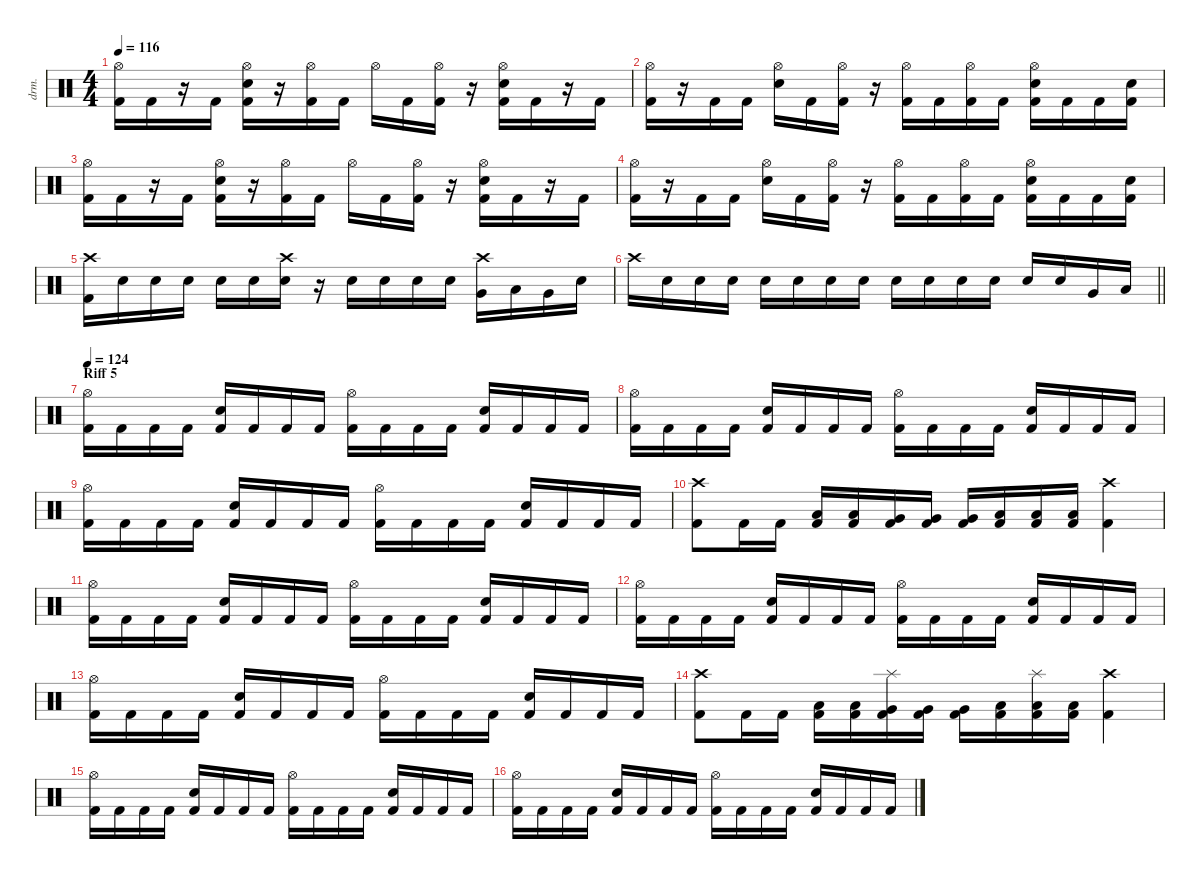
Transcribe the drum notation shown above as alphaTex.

\defaultSystemsLayout 4
\hideDynamics
\bracketExtendMode nobrackets
\otherSystemsTrackNameOrientation horizontal
\track ("Drums" "drm.") {instrument percussion}
\staff {score}
\articulation defaults
\ts (4 4)
\tempo 116
\clef neutral
\ks c
("Hi-Hat (open)" "Kick (hit) 2").16{dy f} "Kick (hit) 2".16 r.16 "Kick (hit) 2".16 ("Hi-Hat (open)" "Snare (hit) 2" "Kick (hit) 2").16 r.16 ("Hi-Hat (open)" "Kick (hit) 2").16 "Kick (hit) 2".16 "Hi-Hat (open)".16 "Kick (hit) 2".16 ("Hi-Hat (open)" "Kick (hit) 2").16 r.16 ("Hi-Hat (open)" "Snare (hit) 2" "Kick (hit) 2").16 "Kick (hit) 2".16 r.16 "Kick (hit) 2".16 |
("Hi-Hat (open)" "Kick (hit) 2").16 r.16 "Kick (hit) 2".16 "Kick (hit) 2".16 ("Hi-Hat (open)" "Snare (hit) 2").16 "Kick (hit) 2".16 ("Hi-Hat (open)" "Kick (hit) 2").16 r.16 ("Hi-Hat (open)" "Kick (hit) 2").16 "Kick (hit) 2".16 ("Hi-Hat (open)" "Kick (hit) 2").16 "Kick (hit) 2".16 ("Hi-Hat (open)" "Snare (hit) 2" "Kick (hit) 2").16 "Kick (hit) 2".16 "Kick (hit) 2".16 ("Snare (hit) 2" "Kick (hit) 2").16 |
("Hi-Hat (open)" "Kick (hit) 2").16 "Kick (hit) 2".16 r.16 "Kick (hit) 2".16 ("Hi-Hat (open)" "Snare (hit) 2" "Kick (hit) 2").16 r.16 ("Hi-Hat (open)" "Kick (hit) 2").16 "Kick (hit) 2".16 "Hi-Hat (open)".16 "Kick (hit) 2".16 ("Hi-Hat (open)" "Kick (hit) 2").16 r.16 ("Hi-Hat (open)" "Snare (hit) 2" "Kick (hit) 2").16 "Kick (hit) 2".16 r.16 "Kick (hit) 2".16 |
("Hi-Hat (open)" "Kick (hit) 2").16 r.16 "Kick (hit) 2".16 "Kick (hit) 2".16 ("Hi-Hat (open)" "Snare (hit) 2").16 "Kick (hit) 2".16 ("Hi-Hat (open)" "Kick (hit) 2").16 r.16 ("Hi-Hat (open)" "Kick (hit) 2").16 "Kick (hit) 2".16 ("Hi-Hat (open)" "Kick (hit) 2").16 "Kick (hit) 2".16 ("Hi-Hat (open)" "Snare (hit) 2" "Kick (hit) 2").16 "Kick (hit) 2".16 "Kick (hit) 2".16 ("Snare (hit) 2" "Kick (hit) 2").16 |
("Kick (hit) 2" "Crash high (hit)").16 "Snare (hit) 2".16 "Snare (hit) 2".16 "Snare (hit) 2".16 "Snare (hit) 2".16 "Snare (hit) 2".16 ("Crash high (hit)" "Snare (hit) 2").16 r.16 "Snare (hit) 2".16 "Snare (hit) 2".16 "Snare (hit) 2".16 "Snare (hit) 2".16 ("Crash high (hit)" "Very Low Tom (hit)").16 "Low Floor Tom (hit)".16 "Very Low Tom (hit)".16 "Snare (hit) 2".16 |
\barLineRight lightlight "Crash high (hit)".16 "Snare (hit) 2".16 "Snare (hit) 2".16 "Snare (hit) 2".16 "Snare (hit) 2".16 "Snare (hit) 2".16 "Snare (hit) 2".16 "Snare (hit) 2".16 "Snare (hit) 2".16 "Snare (hit) 2".16 "Snare (hit) 2".16 "Snare (hit) 2".16 "Snare (hit) 2".16 "Snare (hit) 2".16 "Very Low Tom (hit)".16 "Low Floor Tom (hit)".16
|
\section ("" "Riff 5")
\tempo 124
("Hi-Hat (open)" "Kick (hit) 2").16 "Kick (hit) 2".16 "Kick (hit) 2".16 "Kick (hit) 2".16 ("Snare (hit) 2" "Kick (hit) 2").16 "Kick (hit) 2".16 "Kick (hit) 2".16 "Kick (hit) 2".16 ("Hi-Hat (open)" "Kick (hit) 2").16 "Kick (hit) 2".16 "Kick (hit) 2".16 "Kick (hit) 2".16 ("Snare (hit) 2" "Kick (hit) 2").16 "Kick (hit) 2".16 "Kick (hit) 2".16 "Kick (hit) 2".16 |
("Hi-Hat (open)" "Kick (hit) 2").16 "Kick (hit) 2".16 "Kick (hit) 2".16 "Kick (hit) 2".16 ("Snare (hit) 2" "Kick (hit) 2").16 "Kick (hit) 2".16 "Kick (hit) 2".16 "Kick (hit) 2".16 ("Hi-Hat (open)" "Kick (hit) 2").16 "Kick (hit) 2".16 "Kick (hit) 2".16 "Kick (hit) 2".16 ("Snare (hit) 2" "Kick (hit) 2").16 "Kick (hit) 2".16 "Kick (hit) 2".16 "Kick (hit) 2".16 |
("Hi-Hat (open)" "Kick (hit) 2").16 "Kick (hit) 2".16 "Kick (hit) 2".16 "Kick (hit) 2".16 ("Snare (hit) 2" "Kick (hit) 2").16 "Kick (hit) 2".16 "Kick (hit) 2".16 "Kick (hit) 2".16 ("Hi-Hat (open)" "Kick (hit) 2").16 "Kick (hit) 2".16 "Kick (hit) 2".16 "Kick (hit) 2".16 ("Snare (hit) 2" "Kick (hit) 2").16 "Kick (hit) 2".16 "Kick (hit) 2".16 "Kick (hit) 2".16 |
("Crash high (hit)" "Kick (hit) 2").8 "Kick (hit) 2".16 "Kick (hit) 2".16 ("Low Tom (hit)" "Kick (hit) 2").16 ("Low Tom (hit)" "Kick (hit) 2").16 ("Very Low Tom (hit)" "Kick (hit) 2").16 ("Very Low Tom (hit)" "Kick (hit) 2").16 ("Very Low Tom (hit)" "Kick (hit) 2").16 ("Low Floor Tom (hit)" "Kick (hit) 2").16 ("Low Floor Tom (hit)" "Kick (hit) 2").16 ("Low Floor Tom (hit)" "Kick (hit) 2").16 ("Crash high (hit)" "Kick (hit) 2").4 |
("Hi-Hat (open)" "Kick (hit) 2").16 "Kick (hit) 2".16 "Kick (hit) 2".16 "Kick (hit) 2".16 ("Snare (hit) 2" "Kick (hit) 2").16 "Kick (hit) 2".16 "Kick (hit) 2".16 "Kick (hit) 2".16 ("Hi-Hat (open)" "Kick (hit) 2").16 "Kick (hit) 2".16 "Kick (hit) 2".16 "Kick (hit) 2".16 ("Snare (hit) 2" "Kick (hit) 2").16 "Kick (hit) 2".16 "Kick (hit) 2".16 "Kick (hit) 2".16 |
("Hi-Hat (open)" "Kick (hit) 2").16 "Kick (hit) 2".16 "Kick (hit) 2".16 "Kick (hit) 2".16 ("Snare (hit) 2" "Kick (hit) 2").16 "Kick (hit) 2".16 "Kick (hit) 2".16 "Kick (hit) 2".16 ("Hi-Hat (open)" "Kick (hit) 2").16 "Kick (hit) 2".16 "Kick (hit) 2".16 "Kick (hit) 2".16 ("Snare (hit) 2" "Kick (hit) 2").16 "Kick (hit) 2".16 "Kick (hit) 2".16 "Kick (hit) 2".16 |
("Hi-Hat (open)" "Kick (hit) 2").16 "Kick (hit) 2".16 "Kick (hit) 2".16 "Kick (hit) 2".16 ("Snare (hit) 2" "Kick (hit) 2").16 "Kick (hit) 2".16 "Kick (hit) 2".16 "Kick (hit) 2".16 ("Hi-Hat (open)" "Kick (hit) 2").16 "Kick (hit) 2".16 "Kick (hit) 2".16 "Kick (hit) 2".16 ("Snare (hit) 2" "Kick (hit) 2").16 "Kick (hit) 2".16 "Kick (hit) 2".16 "Kick (hit) 2".16 |
("Crash high (hit)" "Kick (hit) 2").8 "Kick (hit) 2".16 "Kick (hit) 2".16 ("Low Tom (hit)" "Kick (hit) 2").16 ("Low Tom (hit)" "Kick (hit) 2").16 ("Splash (hit)" "Very Low Tom (hit)" "Kick (hit) 2").16 ("Very Low Tom (hit)" "Kick (hit) 2").16 ("Very Low Tom (hit)" "Kick (hit) 2").16 ("Low Floor Tom (hit)" "Kick (hit) 2").16 ("Splash (hit)" "Low Floor Tom (hit)" "Kick (hit) 2").16 ("Low Floor Tom (hit)" "Kick (hit) 2").16 ("Crash high (hit)" "Kick (hit) 2").4 |
("Hi-Hat (open)" "Kick (hit) 2").16 "Kick (hit) 2".16 "Kick (hit) 2".16 "Kick (hit) 2".16 ("Snare (hit) 2" "Kick (hit) 2").16 "Kick (hit) 2".16 "Kick (hit) 2".16 "Kick (hit) 2".16 ("Hi-Hat (open)" "Kick (hit) 2").16 "Kick (hit) 2".16 "Kick (hit) 2".16 "Kick (hit) 2".16 ("Snare (hit) 2" "Kick (hit) 2").16 "Kick (hit) 2".16 "Kick (hit) 2".16 "Kick (hit) 2".16 |
("Hi-Hat (open)" "Kick (hit) 2").16 "Kick (hit) 2".16 "Kick (hit) 2".16 "Kick (hit) 2".16 ("Snare (hit) 2" "Kick (hit) 2").16 "Kick (hit) 2".16 "Kick (hit) 2".16 "Kick (hit) 2".16 ("Hi-Hat (open)" "Kick (hit) 2").16 "Kick (hit) 2".16 "Kick (hit) 2".16 "Kick (hit) 2".16 ("Snare (hit) 2" "Kick (hit) 2").16 "Kick (hit) 2".16 "Kick (hit) 2".16 "Kick (hit) 2".16
